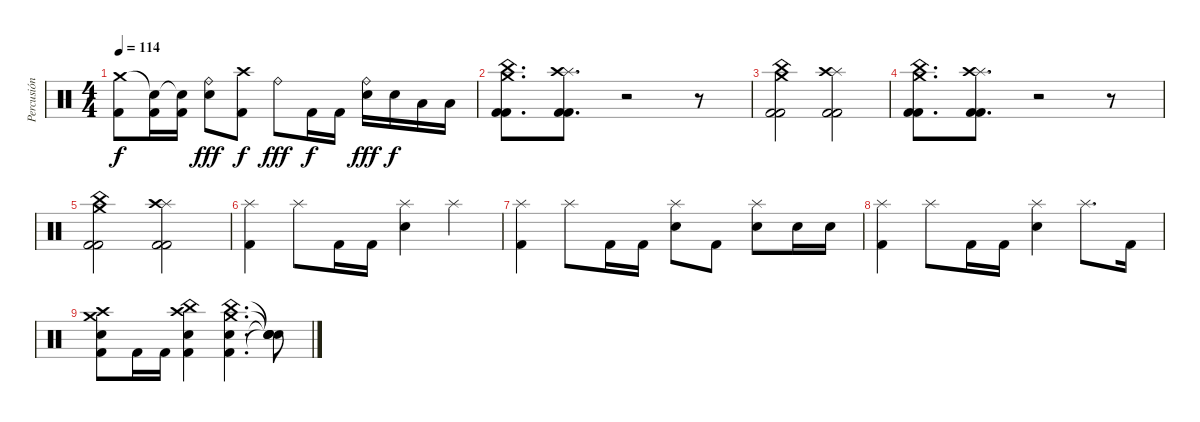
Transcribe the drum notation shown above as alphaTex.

\track ("Percusión" "Percusión") {instrument percussion}
\staff {score}
\articulation defaults
\ts (4 4)
\tempo 114
\clef neutral
\ks c
("Crash medium (hit)" "Kick (hit) 2").8{dy f} ("Snare (hit)"{t} "Kick (hit) 2").16 ("Snare (hit)"{t} "Kick (hit) 2").16 ("Ride (bell)" "Snare (hit) 2").8{dy fff} ("Crash high (hit)" "Kick (hit) 2").8{dy f} "Ride (bell)".8{dy fff} "Kick (hit) 2".16{dy f} "Kick (hit) 2".16 ("Ride (bell)" "Snare (hit) 2").16{dy fff} "Snare (hit) 2".16{dy f} "Low Floor Tom (hit)".16 "Low Floor Tom (hit)".16 |
("China (hit)" "Crash medium (hit)" "Kick (hit) 2" "Kick (hit) 2").8{d} ("Splash (hit)" "Crash high (hit)" "Kick (hit) 2" "Kick (hit) 2").8{d} r.2 r.8 |
("China (hit)" "Crash medium (hit)" "Kick (hit) 2" "Kick (hit) 2").2 ("Splash (hit)" "Crash high (hit)" "Kick (hit) 2" "Kick (hit) 2").2 |
("China (hit)" "Crash medium (hit)" "Kick (hit) 2" "Kick (hit) 2").8{d} ("Splash (hit)" "Crash high (hit)" "Kick (hit) 2" "Kick (hit) 2").8{d} r.2 r.8 |
("China (hit)" "Crash medium (hit)" "Kick (hit) 2" "Kick (hit) 2").2 ("Splash (hit)" "Crash high (hit)" "Kick (hit) 2" "Kick (hit) 2").2 |
("Splash (hit)" "Kick (hit) 2").4 "Splash (hit)".8 "Kick (hit) 2".16 "Kick (hit) 2".16 ("Splash (hit)" "Electric Snare (hit)").4 "Splash (hit)".4 |
("Splash (hit)" "Kick (hit) 2").4 "Splash (hit)".8 "Kick (hit) 2".16 "Kick (hit) 2".16 ("Splash (hit)" "Electric Snare (hit)").8 "Kick (hit) 2".8 ("Splash (hit)" "Electric Snare (hit)").8 "Electric Snare (hit)".16 "Electric Snare (hit)".16 |
("Splash (hit)" "Kick (hit) 2").4 "Splash (hit)".8 "Kick (hit) 2".16 "Kick (hit) 2".16 ("Splash (hit)" "Electric Snare (hit)").4 "Splash (hit)".8{d} "Kick (hit) 2".16 |
("Crash high (hit)" "Crash medium (hit)" "Snare (hit) 2" "Kick (hit) 2").8 "Kick (hit) 2".16 "Kick (hit) 2".16 ("China (hit)" "Crash high (hit)" "Snare (hit) 2" "Kick (hit) 2").4 ("China (hit)" "Crash medium (hit)" "Snare (hit) 2" "Kick (hit) 2").4{d} ("Snare (hit)"{t} "Snare (hit)"{t} "Snare (hit)"{t} "Snare (hit)"{t}).8
